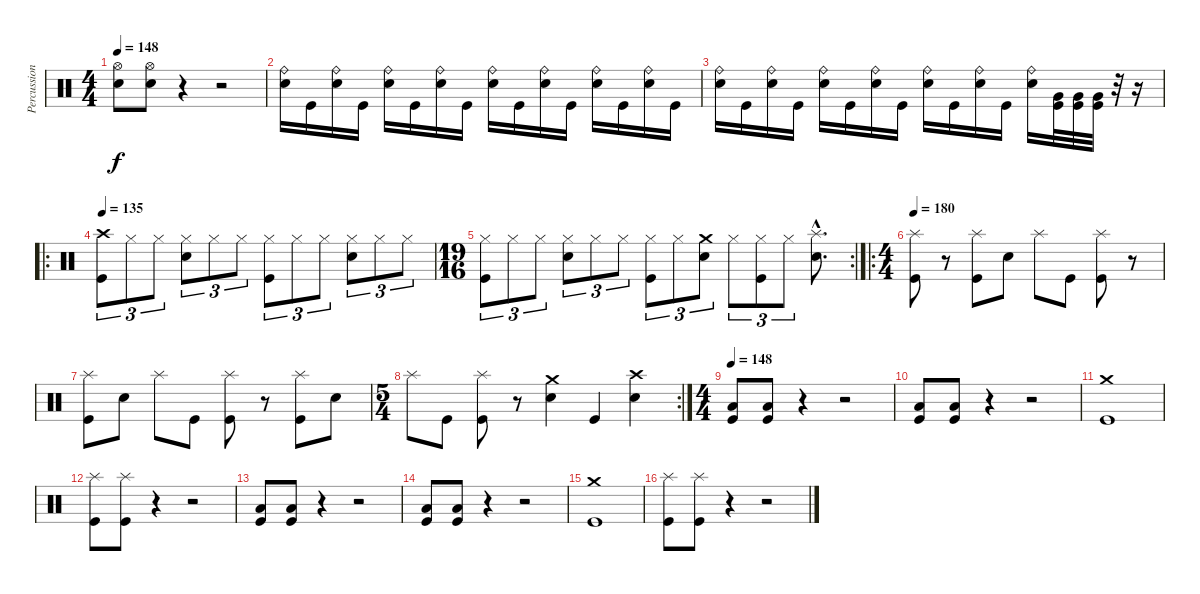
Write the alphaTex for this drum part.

\track ("Percussions" "Percussion") {instrument percussion}
\staff {score}
\articulation defaults
\ts (4 4)
\tempo 148
\clef neutral
\ks c
("Electric Snare (hit)" "Hi-Hat (open)").8{dy f} ("Electric Snare (hit)" "Hi-Hat (open)").8 r.4 r.2 |
("Electric Snare (hit)" "Ride (bell)").16 "Kick (hit)".16 ("Electric Snare (hit)" "Ride (bell)").16 "Kick (hit)".16 ("Electric Snare (hit)" "Ride (bell)").16 "Kick (hit)".16 ("Electric Snare (hit)" "Ride (bell)").16 "Kick (hit)".16 ("Electric Snare (hit)" "Ride (bell)").16 "Kick (hit)".16 ("Electric Snare (hit)" "Ride (bell)").16 "Kick (hit)".16 ("Electric Snare (hit)" "Ride (bell)").16 "Kick (hit)".16 ("Electric Snare (hit)" "Ride (bell)").16 "Kick (hit)".16 |
("Electric Snare (hit)" "Ride (bell)").16 "Kick (hit)".16 ("Electric Snare (hit)" "Ride (bell)").16 "Kick (hit)".16 ("Electric Snare (hit)" "Ride (bell)").16 "Kick (hit)".16 ("Electric Snare (hit)" "Ride (bell)").16 "Kick (hit)".16 ("Electric Snare (hit)" "Ride (bell)").16 "Kick (hit)".16 ("Electric Snare (hit)" "Ride (bell)").16 "Kick (hit)".16 ("Electric Snare (hit)" "Ride (bell)").16 ("Kick (hit)" "Very Low Tom (hit)").32 ("Kick (hit)" "Very Low Tom (hit)").32 ("Kick (hit)" "Very Low Tom (hit)").32 r.32 r.16 |
\ro
\tempo 135
("Kick (hit)" "Crash high (hit)").8{tu (3 2)} "Hi-Hat (closed)".8{tu (3 2)} "Hi-Hat (closed)".8{tu (3 2)} ("Electric Snare (hit)" "Hi-Hat (closed)").8{tu (3 2)} "Hi-Hat (closed)".8{tu (3 2)} "Hi-Hat (closed)".8{tu (3 2)} ("Kick (hit)" "Hi-Hat (closed)").8{tu (3 2)} "Hi-Hat (closed)".8{tu (3 2)} "Hi-Hat (closed)".8{tu (3 2)} ("Electric Snare (hit)" "Hi-Hat (closed)").8{tu (3 2)} "Hi-Hat (closed)".8{tu (3 2)} "Hi-Hat (closed)".8{tu (3 2)} |
\rc 2
\ts (19 16)
("Kick (hit)" "Hi-Hat (closed)").8{tu (3 2)} "Hi-Hat (closed)".8{tu (3 2)} "Hi-Hat (closed)".8{tu (3 2)} ("Electric Snare (hit)" "Hi-Hat (closed)").8{tu (3 2)} "Hi-Hat (closed)".8{tu (3 2)} "Hi-Hat (closed)".8{tu (3 2)} ("Kick (hit)" "Hi-Hat (closed)").8{tu (3 2)} "Hi-Hat (closed)".8{tu (3 2)} ("Electric Snare (hit)" "Crash medium (hit)").8{tu (3 2)} "Hi-Hat (closed)".8{tu (3 2)} ("Kick (hit)" "Hi-Hat (closed)").8{tu (3 2)} "Hi-Hat (closed)".8{tu (3 2)} ("Electric Snare (hit)"{hac} "Splash (hit)"{hac}).8{d} |
\ro
\ts (4 4)
\tempo 180
("Kick (hit)" "Splash (hit)").8 r.8 ("Kick (hit)" "Splash (hit)").8 "Electric Snare (hit)".8 "Splash (hit)".8 "Kick (hit)".8 ("Kick (hit)" "Splash (hit)").8 r.8 |
("Kick (hit)" "Splash (hit)").8 "Electric Snare (hit)".8 "Splash (hit)".8 "Kick (hit)".8 ("Kick (hit)" "Splash (hit)").8 r.8 ("Kick (hit)" "Splash (hit)").8 "Electric Snare (hit)".8 |
\rc 2
\ts (5 4)
"Splash (hit)".8 "Kick (hit)".8 ("Kick (hit)" "Splash (hit)").8 r.8 ("Electric Snare (hit)" "Crash medium (hit)").4 "Kick (hit)".4 ("Electric Snare (hit)" "Crash high (hit)").4 |
\ts (4 4)
\tempo 148
("Kick (hit)" "Low Floor Tom (hit)").8 ("Kick (hit)" "Low Floor Tom (hit)").8 r.4 r.2 |
("Kick (hit)" "Low Floor Tom (hit)").8 ("Kick (hit)" "Low Floor Tom (hit)").8 r.4 r.2 |
("Kick (hit)" "Crash medium (hit)").1 |
("Kick (hit)" "Splash (hit)").8 ("Kick (hit)" "Splash (hit)").8 r.4 r.2 |
("Kick (hit)" "Low Floor Tom (hit)").8 ("Kick (hit)" "Low Floor Tom (hit)").8 r.4 r.2 |
("Kick (hit)" "Low Floor Tom (hit)").8 ("Kick (hit)" "Low Floor Tom (hit)").8 r.4 r.2 |
("Kick (hit)" "Crash medium (hit)").1 |
("Kick (hit)" "Splash (hit)").8 ("Kick (hit)" "Splash (hit)").8 r.4 r.2
